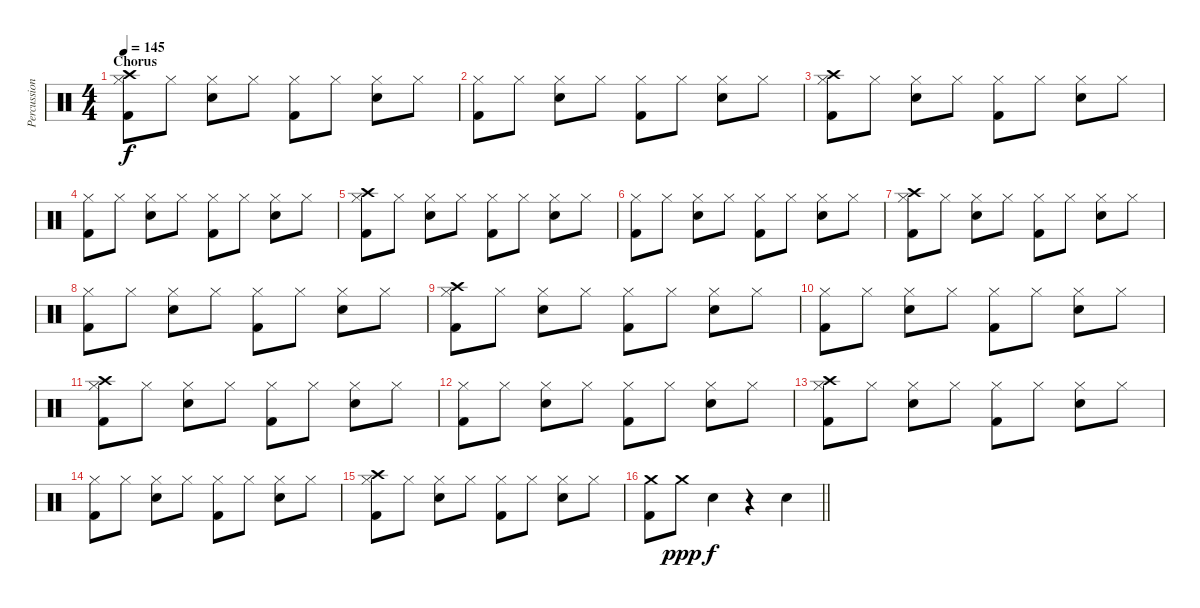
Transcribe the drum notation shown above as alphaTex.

\track ("Percussion" "Percussion") {instrument percussion}
\staff {score}
\articulation defaults
\ts (4 4)
\section ("" "Chorus")
\tempo 145
\clef neutral
\ks c
("Crash high (hit)" "Hi-Hat (closed)" "Kick (hit) 2").8{dy f} "Hi-Hat (closed)".8 ("Hi-Hat (closed)" "Electric Snare (hit)").8 "Hi-Hat (closed)".8 ("Hi-Hat (closed)" "Kick (hit) 2").8 "Hi-Hat (closed)".8 ("Hi-Hat (closed)" "Electric Snare (hit)").8 "Hi-Hat (closed)".8 |
("Hi-Hat (closed)" "Kick (hit) 2").8 "Hi-Hat (closed)".8 ("Hi-Hat (closed)" "Electric Snare (hit)").8 "Hi-Hat (closed)".8 ("Hi-Hat (closed)" "Kick (hit) 2").8 "Hi-Hat (closed)".8 ("Hi-Hat (closed)" "Electric Snare (hit)").8 "Hi-Hat (closed)".8 |
("Crash high (hit)" "Hi-Hat (closed)" "Kick (hit) 2").8 "Hi-Hat (closed)".8 ("Hi-Hat (closed)" "Electric Snare (hit)").8 "Hi-Hat (closed)".8 ("Hi-Hat (closed)" "Kick (hit) 2").8 "Hi-Hat (closed)".8 ("Hi-Hat (closed)" "Electric Snare (hit)").8 "Hi-Hat (closed)".8 |
("Hi-Hat (closed)" "Kick (hit) 2").8 "Hi-Hat (closed)".8 ("Hi-Hat (closed)" "Electric Snare (hit)").8 "Hi-Hat (closed)".8 ("Hi-Hat (closed)" "Kick (hit) 2").8 "Hi-Hat (closed)".8 ("Hi-Hat (closed)" "Electric Snare (hit)").8 "Hi-Hat (closed)".8 |
("Crash high (hit)" "Hi-Hat (closed)" "Kick (hit) 2").8 "Hi-Hat (closed)".8 ("Hi-Hat (closed)" "Electric Snare (hit)").8 "Hi-Hat (closed)".8 ("Hi-Hat (closed)" "Kick (hit) 2").8 "Hi-Hat (closed)".8 ("Hi-Hat (closed)" "Electric Snare (hit)").8 "Hi-Hat (closed)".8 |
("Hi-Hat (closed)" "Kick (hit) 2").8 "Hi-Hat (closed)".8 ("Hi-Hat (closed)" "Electric Snare (hit)").8 "Hi-Hat (closed)".8 ("Hi-Hat (closed)" "Kick (hit) 2").8 "Hi-Hat (closed)".8 ("Hi-Hat (closed)" "Electric Snare (hit)").8 "Hi-Hat (closed)".8 |
("Crash high (hit)" "Hi-Hat (closed)" "Kick (hit) 2").8 "Hi-Hat (closed)".8 ("Hi-Hat (closed)" "Electric Snare (hit)").8 "Hi-Hat (closed)".8 ("Hi-Hat (closed)" "Kick (hit) 2").8 "Hi-Hat (closed)".8 ("Hi-Hat (closed)" "Electric Snare (hit)").8 "Hi-Hat (closed)".8 |
("Hi-Hat (closed)" "Kick (hit) 2").8 "Hi-Hat (closed)".8 ("Hi-Hat (closed)" "Electric Snare (hit)").8 "Hi-Hat (closed)".8 ("Hi-Hat (closed)" "Kick (hit) 2").8 "Hi-Hat (closed)".8 ("Hi-Hat (closed)" "Electric Snare (hit)").8 "Hi-Hat (closed)".8 |
("Crash high (hit)" "Hi-Hat (closed)" "Kick (hit) 2").8 "Hi-Hat (closed)".8 ("Hi-Hat (closed)" "Electric Snare (hit)").8 "Hi-Hat (closed)".8 ("Hi-Hat (closed)" "Kick (hit) 2").8 "Hi-Hat (closed)".8 ("Hi-Hat (closed)" "Electric Snare (hit)").8 "Hi-Hat (closed)".8 |
("Hi-Hat (closed)" "Kick (hit) 2").8 "Hi-Hat (closed)".8 ("Hi-Hat (closed)" "Electric Snare (hit)").8 "Hi-Hat (closed)".8 ("Hi-Hat (closed)" "Kick (hit) 2").8 "Hi-Hat (closed)".8 ("Hi-Hat (closed)" "Electric Snare (hit)").8 "Hi-Hat (closed)".8 |
("Crash high (hit)" "Hi-Hat (closed)" "Kick (hit) 2").8 "Hi-Hat (closed)".8 ("Hi-Hat (closed)" "Electric Snare (hit)").8 "Hi-Hat (closed)".8 ("Hi-Hat (closed)" "Kick (hit) 2").8 "Hi-Hat (closed)".8 ("Hi-Hat (closed)" "Electric Snare (hit)").8 "Hi-Hat (closed)".8 |
("Hi-Hat (closed)" "Kick (hit) 2").8 "Hi-Hat (closed)".8 ("Hi-Hat (closed)" "Electric Snare (hit)").8 "Hi-Hat (closed)".8 ("Hi-Hat (closed)" "Kick (hit) 2").8 "Hi-Hat (closed)".8 ("Hi-Hat (closed)" "Electric Snare (hit)").8 "Hi-Hat (closed)".8 |
("Crash high (hit)" "Hi-Hat (closed)" "Kick (hit) 2").8 "Hi-Hat (closed)".8 ("Hi-Hat (closed)" "Electric Snare (hit)").8 "Hi-Hat (closed)".8 ("Hi-Hat (closed)" "Kick (hit) 2").8 "Hi-Hat (closed)".8 ("Hi-Hat (closed)" "Electric Snare (hit)").8 "Hi-Hat (closed)".8 |
("Hi-Hat (closed)" "Kick (hit) 2").8 "Hi-Hat (closed)".8 ("Hi-Hat (closed)" "Electric Snare (hit)").8 "Hi-Hat (closed)".8 ("Hi-Hat (closed)" "Kick (hit) 2").8 "Hi-Hat (closed)".8 ("Hi-Hat (closed)" "Electric Snare (hit)").8 "Hi-Hat (closed)".8 |
("Crash high (hit)" "Hi-Hat (closed)" "Kick (hit) 2").8 "Hi-Hat (closed)".8 ("Hi-Hat (closed)" "Electric Snare (hit)").8 "Hi-Hat (closed)".8 ("Hi-Hat (closed)" "Kick (hit) 2").8 "Hi-Hat (closed)".8 ("Hi-Hat (closed)" "Electric Snare (hit)").8 "Hi-Hat (closed)".8 |
\barLineRight lightlight
("Crash medium (hit)" "Kick (hit) 2").8 "Crash medium (hit)".8{dy ppp} "Snare (hit) 2".4{dy f} r.4 "Snare (hit) 2".4
